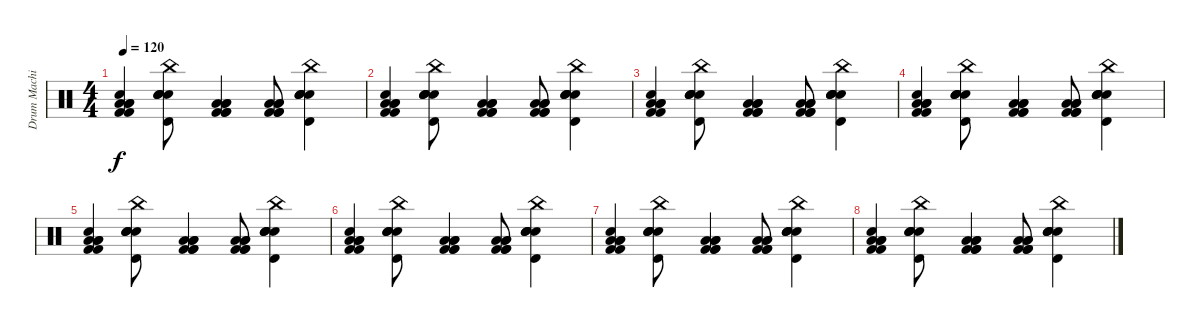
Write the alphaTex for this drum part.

\track ("Drum Machine" "Drum Machi") {instrument percussion}
\staff {score}
\articulation defaults
\ts (4 4)
\tempo 120
\clef neutral
\ks c
("Electric Snare (hit)" "Low Floor Tom (hit)" "Kick (hit) 2" "Low Floor Tom (hit)" "Kick (hit) 2" "Low Floor Tom (hit)").4{dy f} ("Timbale high (hit)" "China (hit)" "Electric Snare (hit)" "Electric Snare (hit)" "Electric Snare (hit)" "Electric Snare (hit)").8 ("Kick (hit) 2" "Low Floor Tom (hit)" "Kick (hit) 2" "Low Floor Tom (hit)" "Kick (hit) 2" "Low Floor Tom (hit)").4 ("Kick (hit) 2" "Low Floor Tom (hit)" "Kick (hit) 2" "Low Floor Tom (hit)" "Kick (hit) 2" "Low Floor Tom (hit)").8 ("Timbale high (hit)" "China (hit)" "Electric Snare (hit)" "Electric Snare (hit)" "Electric Snare (hit)" "Electric Snare (hit)").4 |
("Electric Snare (hit)" "Low Floor Tom (hit)" "Kick (hit) 2" "Low Floor Tom (hit)" "Kick (hit) 2" "Low Floor Tom (hit)").4 ("Timbale high (hit)" "China (hit)" "Electric Snare (hit)" "Electric Snare (hit)" "Electric Snare (hit)" "Electric Snare (hit)").8 ("Kick (hit) 2" "Low Floor Tom (hit)" "Kick (hit) 2" "Low Floor Tom (hit)" "Kick (hit) 2" "Low Floor Tom (hit)").4 ("Kick (hit) 2" "Low Floor Tom (hit)" "Kick (hit) 2" "Low Floor Tom (hit)" "Kick (hit) 2" "Low Floor Tom (hit)").8 ("Timbale high (hit)" "China (hit)" "Electric Snare (hit)" "Electric Snare (hit)" "Electric Snare (hit)" "Electric Snare (hit)").4 |
("Electric Snare (hit)" "Low Floor Tom (hit)" "Kick (hit) 2" "Low Floor Tom (hit)" "Kick (hit) 2" "Low Floor Tom (hit)").4 ("Timbale high (hit)" "China (hit)" "Electric Snare (hit)" "Electric Snare (hit)" "Electric Snare (hit)" "Electric Snare (hit)").8 ("Kick (hit) 2" "Low Floor Tom (hit)" "Kick (hit) 2" "Low Floor Tom (hit)" "Kick (hit) 2" "Low Floor Tom (hit)").4 ("Kick (hit) 2" "Low Floor Tom (hit)" "Kick (hit) 2" "Low Floor Tom (hit)" "Kick (hit) 2" "Low Floor Tom (hit)").8 ("Timbale high (hit)" "China (hit)" "Electric Snare (hit)" "Electric Snare (hit)" "Electric Snare (hit)" "Electric Snare (hit)").4 |
("Electric Snare (hit)" "Low Floor Tom (hit)" "Kick (hit) 2" "Low Floor Tom (hit)" "Kick (hit) 2" "Low Floor Tom (hit)").4 ("Timbale high (hit)" "China (hit)" "Electric Snare (hit)" "Electric Snare (hit)" "Electric Snare (hit)" "Electric Snare (hit)").8 ("Kick (hit) 2" "Low Floor Tom (hit)" "Kick (hit) 2" "Low Floor Tom (hit)" "Kick (hit) 2" "Low Floor Tom (hit)").4 ("Kick (hit) 2" "Low Floor Tom (hit)" "Kick (hit) 2" "Low Floor Tom (hit)" "Kick (hit) 2" "Low Floor Tom (hit)").8 ("Timbale high (hit)" "China (hit)" "Electric Snare (hit)" "Electric Snare (hit)" "Electric Snare (hit)" "Electric Snare (hit)").4 |
("Electric Snare (hit)" "Low Floor Tom (hit)" "Kick (hit) 2" "Low Floor Tom (hit)" "Kick (hit) 2" "Low Floor Tom (hit)").4 ("Timbale high (hit)" "China (hit)" "Electric Snare (hit)" "Electric Snare (hit)" "Electric Snare (hit)" "Electric Snare (hit)").8 ("Kick (hit) 2" "Low Floor Tom (hit)" "Kick (hit) 2" "Low Floor Tom (hit)" "Kick (hit) 2" "Low Floor Tom (hit)").4 ("Kick (hit) 2" "Low Floor Tom (hit)" "Kick (hit) 2" "Low Floor Tom (hit)" "Kick (hit) 2" "Low Floor Tom (hit)").8 ("Timbale high (hit)" "China (hit)" "Electric Snare (hit)" "Electric Snare (hit)" "Electric Snare (hit)" "Electric Snare (hit)").4 |
("Electric Snare (hit)" "Low Floor Tom (hit)" "Kick (hit) 2" "Low Floor Tom (hit)" "Kick (hit) 2" "Low Floor Tom (hit)").4 ("Timbale high (hit)" "China (hit)" "Electric Snare (hit)" "Electric Snare (hit)" "Electric Snare (hit)" "Electric Snare (hit)").8 ("Kick (hit) 2" "Low Floor Tom (hit)" "Kick (hit) 2" "Low Floor Tom (hit)" "Kick (hit) 2" "Low Floor Tom (hit)").4 ("Kick (hit) 2" "Low Floor Tom (hit)" "Kick (hit) 2" "Low Floor Tom (hit)" "Kick (hit) 2" "Low Floor Tom (hit)").8 ("Timbale high (hit)" "China (hit)" "Electric Snare (hit)" "Electric Snare (hit)" "Electric Snare (hit)" "Electric Snare (hit)").4 |
("Electric Snare (hit)" "Low Floor Tom (hit)" "Kick (hit) 2" "Low Floor Tom (hit)" "Kick (hit) 2" "Low Floor Tom (hit)").4 ("Timbale high (hit)" "China (hit)" "Electric Snare (hit)" "Electric Snare (hit)" "Electric Snare (hit)" "Electric Snare (hit)").8 ("Kick (hit) 2" "Low Floor Tom (hit)" "Kick (hit) 2" "Low Floor Tom (hit)" "Kick (hit) 2" "Low Floor Tom (hit)").4 ("Kick (hit) 2" "Low Floor Tom (hit)" "Kick (hit) 2" "Low Floor Tom (hit)" "Kick (hit) 2" "Low Floor Tom (hit)").8 ("Timbale high (hit)" "China (hit)" "Electric Snare (hit)" "Electric Snare (hit)" "Electric Snare (hit)" "Electric Snare (hit)").4 |
("Electric Snare (hit)" "Low Floor Tom (hit)" "Kick (hit) 2" "Low Floor Tom (hit)" "Kick (hit) 2" "Low Floor Tom (hit)").4 ("Timbale high (hit)" "China (hit)" "Electric Snare (hit)" "Electric Snare (hit)" "Electric Snare (hit)" "Electric Snare (hit)").8 ("Kick (hit) 2" "Low Floor Tom (hit)" "Kick (hit) 2" "Low Floor Tom (hit)" "Kick (hit) 2" "Low Floor Tom (hit)").4 ("Kick (hit) 2" "Low Floor Tom (hit)" "Kick (hit) 2" "Low Floor Tom (hit)" "Kick (hit) 2" "Low Floor Tom (hit)").8 ("Timbale high (hit)" "China (hit)" "Electric Snare (hit)" "Electric Snare (hit)" "Electric Snare (hit)" "Electric Snare (hit)").4
